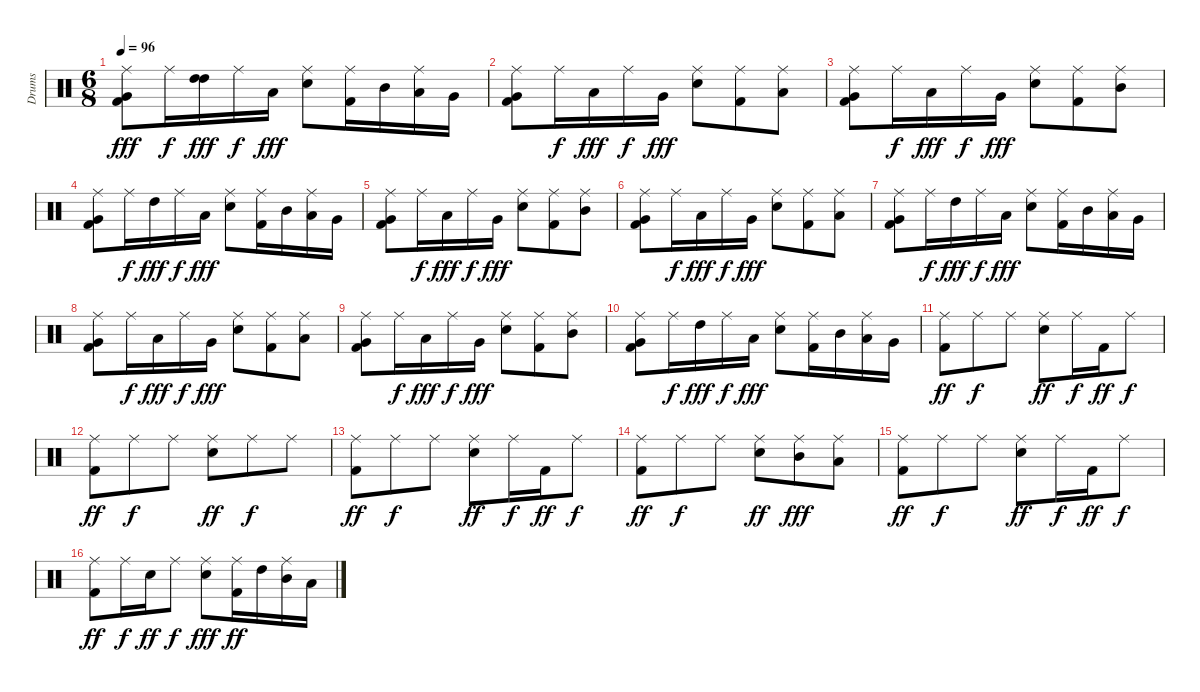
\track ("Drums" "Drums") {instrument percussion}
\staff {score}
\articulation defaults
\ts (6 8)
\tempo 96
\clef neutral
\ks c
("Ride (middle)" "Very Low Tom (hit)" "Kick (hit) 2").8{dy fff} "Ride (middle)".16{dy f} ("High Tom (hit)" "High Tom (hit)").16{dy fff} "Ride (middle)".16{dy f} "Low Tom (hit)".16{dy fff} ("Ride (middle)" "Electric Snare (hit)").8 ("Ride (middle)" "Kick (hit) 2").16 "Mid Tom (hit)".16 ("Ride (middle)" "Low Tom (hit)").16 "Very Low Tom (hit)".16 |
("Ride (middle)" "Very Low Tom (hit)" "Kick (hit) 2").8 "Ride (middle)".16{dy f} "Low Tom (hit)".16{dy fff} "Ride (middle)".16{dy f} "Very Low Tom (hit)".16{dy fff} ("Ride (middle)" "Electric Snare (hit)").8 ("Ride (middle)" "Kick (hit) 2").8 ("Ride (middle)" "Low Tom (hit)").8 |
("Ride (middle)" "Very Low Tom (hit)" "Kick (hit) 2").8 "Ride (middle)".16{dy f} "Low Tom (hit)".16{dy fff} "Ride (middle)".16{dy f} "Very Low Tom (hit)".16{dy fff} ("Ride (middle)" "Electric Snare (hit)").8 ("Ride (middle)" "Kick (hit) 2").8 ("Ride (middle)" "Mid Tom (hit)").8 |
("Ride (middle)" "Kick (hit) 2" "Very Low Tom (hit)").8 "Ride (middle)".16{dy f} "High Tom (hit)".16{dy fff} "Ride (middle)".16{dy f} "Low Tom (hit)".16{dy fff} ("Ride (middle)" "Electric Snare (hit)").8 ("Ride (middle)" "Kick (hit) 2").16 "Mid Tom (hit)".16 ("Ride (middle)" "Low Tom (hit)").16 "Very Low Tom (hit)".16 |
("Ride (middle)" "Very Low Tom (hit)" "Kick (hit) 2").8 "Ride (middle)".16{dy f} "Low Tom (hit)".16{dy fff} "Ride (middle)".16{dy f} "Very Low Tom (hit)".16{dy fff} ("Ride (middle)" "Electric Snare (hit)").8 ("Ride (middle)" "Kick (hit) 2").8 ("Ride (middle)" "Mid Tom (hit)").8 |
("Ride (middle)" "Very Low Tom (hit)" "Kick (hit) 2").8 "Ride (middle)".16{dy f} "Low Tom (hit)".16{dy fff} "Ride (middle)".16{dy f} "Very Low Tom (hit)".16{dy fff} ("Ride (middle)" "Electric Snare (hit)").8 ("Ride (middle)" "Kick (hit) 2").8 ("Ride (middle)" "Low Tom (hit)").8 |
("Ride (middle)" "Kick (hit) 2" "Very Low Tom (hit)").8 "Ride (middle)".16{dy f} "High Tom (hit)".16{dy fff} "Ride (middle)".16{dy f} "Low Tom (hit)".16{dy fff} ("Ride (middle)" "Electric Snare (hit)").8 ("Ride (middle)" "Kick (hit) 2").16 "Mid Tom (hit)".16 ("Ride (middle)" "Low Tom (hit)").16 "Very Low Tom (hit)".16 |
("Ride (middle)" "Very Low Tom (hit)" "Kick (hit) 2").8 "Ride (middle)".16{dy f} "Low Tom (hit)".16{dy fff} "Ride (middle)".16{dy f} "Very Low Tom (hit)".16{dy fff} ("Ride (middle)" "Electric Snare (hit)").8 ("Ride (middle)" "Kick (hit) 2").8 ("Ride (middle)" "Low Tom (hit)").8 |
("Ride (middle)" "Very Low Tom (hit)" "Kick (hit) 2").8 "Ride (middle)".16{dy f} "Low Tom (hit)".16{dy fff} "Ride (middle)".16{dy f} "Very Low Tom (hit)".16{dy fff} ("Ride (middle)" "Electric Snare (hit)").8 ("Ride (middle)" "Kick (hit) 2").8 ("Ride (middle)" "Mid Tom (hit)").8 |
("Ride (middle)" "Kick (hit) 2" "Very Low Tom (hit)").8 "Ride (middle)".16{dy f} "High Tom (hit)".16{dy fff} "Ride (middle)".16{dy f} "Low Tom (hit)".16{dy fff} ("Ride (middle)" "Electric Snare (hit)").8 ("Ride (middle)" "Kick (hit) 2").16 "Mid Tom (hit)".16 ("Low Tom (hit)" "Ride (middle)").16 "Very Low Tom (hit)".16 |
("Kick (hit) 2" "Ride (middle)").8{dy ff} "Ride (middle)".8{dy f} "Ride (middle)".8 ("Electric Snare (hit)" "Ride (middle)").8{dy ff} "Ride (middle)".16{dy f} "Kick (hit) 2".16{dy ff} "Ride (middle)".8{dy f} |
("Kick (hit) 2" "Ride (middle)").8{dy ff} "Ride (middle)".8{dy f} "Ride (middle)".8 ("Electric Snare (hit)" "Ride (middle)").8{dy ff} "Ride (middle)".8{dy f} "Ride (middle)".8 |
("Ride (middle)" "Kick (hit) 2").8{dy ff} "Ride (middle)".8{dy f} "Ride (middle)".8 ("Ride (middle)" "Electric Snare (hit)").8{dy ff} "Ride (middle)".16{dy f} "Kick (hit) 2".16{dy ff} "Ride (middle)".8{dy f} |
("Ride (middle)" "Kick (hit) 2").8{dy ff} "Ride (middle)".8{dy f} "Ride (middle)".8 ("Ride (middle)" "Electric Snare (hit)").8{dy ff} ("Mid Tom (hit)" "Ride (middle)").8{dy fff} ("Low Tom (hit)" "Ride (middle)").8 |
("Ride (middle)" "Kick (hit) 2").8{dy ff} "Ride (middle)".8{dy f} "Ride (middle)".8 ("Ride (middle)" "Electric Snare (hit)").8{dy ff} "Ride (middle)".16{dy f} "Kick (hit) 2".16{dy ff} "Ride (middle)".8{dy f} |
("Ride (middle)" "Kick (hit) 2").8{dy ff} "Ride (middle)".16{dy f} "Electric Snare (hit)".16{dy ff} "Ride (middle)".8{dy f} ("Ride (middle)" "Electric Snare (hit)").8{dy fff} ("Kick (hit) 2" "Ride (middle)").16{dy ff} "High Tom (hit)".16 ("Mid Tom (hit)" "Ride (middle)").16 "Low Tom (hit)".16
